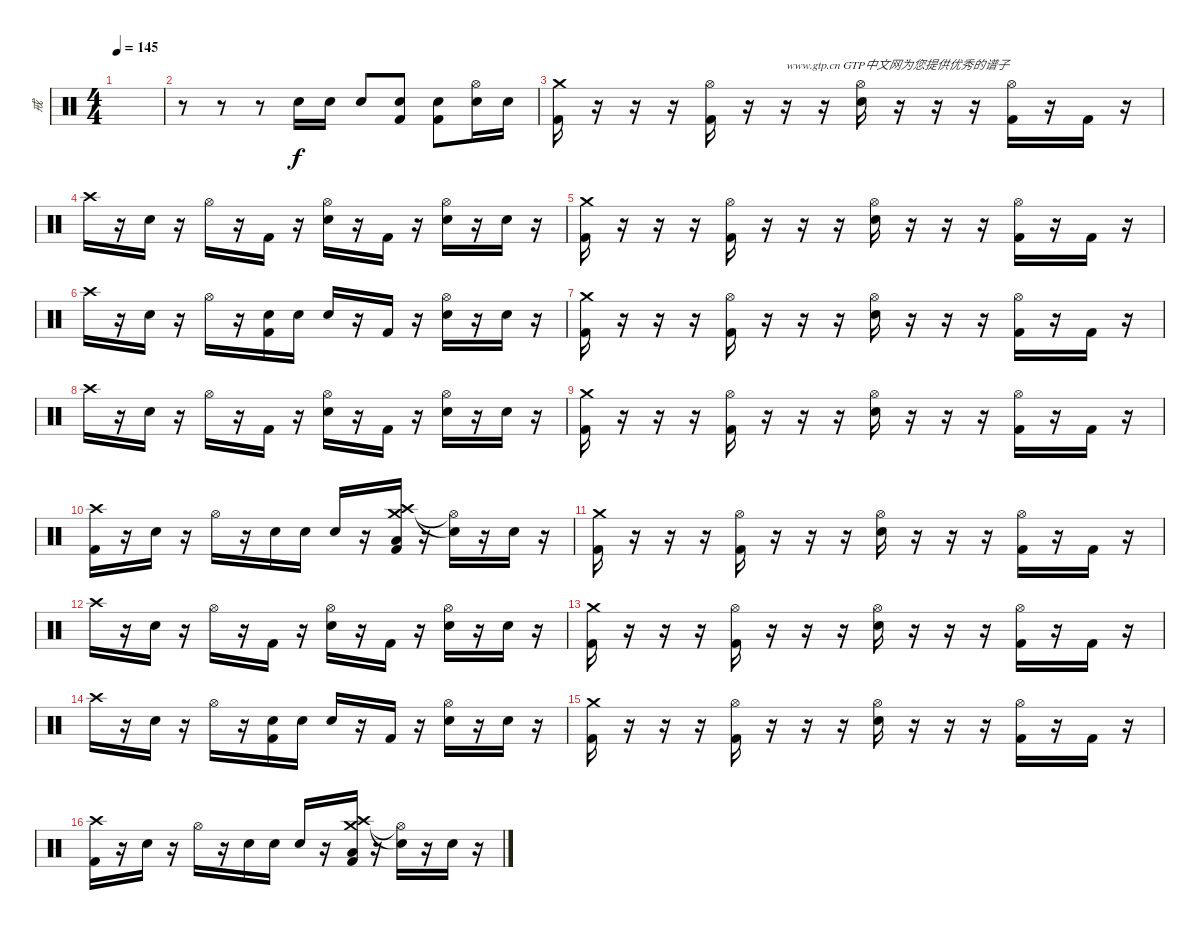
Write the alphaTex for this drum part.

\track ("戒" "戒") {instrument percussion}
\staff {score}
\articulation defaults
\ts (4 4)
\tempo 145
\clef neutral
\ks c
|
r.8 r.8 r.8 "Electric Snare (hit)".16 "Electric Snare (hit)".16 "Electric Snare (hit)".8 ("Electric Snare (hit)" "Kick (hit) 2").8 ("Electric Snare (hit)" "Kick (hit) 2").8 ("Electric Snare (hit)" "Hi-Hat (open)").16 "Electric Snare (hit)".16 |
("Crash medium (hit)" "Kick (hit) 2").16 r.16 r.16 r.16 ("Hi-Hat (open)" "Kick (hit) 2").16 r.16 r.16{txt "www.gtp.cn GTP中文网为您提供优秀的谱子"} r.16 ("Hi-Hat (open)" "Electric Snare (hit)").16 r.16 r.16 r.16 ("Hi-Hat (open)" "Kick (hit) 2").16 r.16 "Kick (hit) 2".16 r.16 |
"Crash high (hit)".16 r.16 "Electric Snare (hit)".16 r.16 "Hi-Hat (open)".16 r.16 "Kick (hit) 2".16 r.16 ("Hi-Hat (open)" "Electric Snare (hit)").16 r.16 "Kick (hit) 2".16 r.16 ("Hi-Hat (open)" "Electric Snare (hit)").16 r.16 "Electric Snare (hit)".16 r.16 |
("Crash medium (hit)" "Kick (hit) 2").16 r.16 r.16 r.16 ("Hi-Hat (open)" "Kick (hit) 2").16 r.16 r.16 r.16 ("Hi-Hat (open)" "Electric Snare (hit)").16 r.16 r.16 r.16 ("Hi-Hat (open)" "Kick (hit) 2").16 r.16 "Kick (hit) 2".16 r.16 |
"Crash high (hit)".16 r.16 "Electric Snare (hit)".16 r.16 "Hi-Hat (open)".16 r.16 ("Electric Snare (hit)" "Kick (hit) 2").16 "Electric Snare (hit)".16 "Electric Snare (hit)".16 r.16 "Kick (hit) 2".16 r.16 ("Hi-Hat (open)" "Electric Snare (hit)").16 r.16 "Electric Snare (hit)".16 r.16 |
("Crash medium (hit)" "Kick (hit) 2").16 r.16 r.16 r.16 ("Hi-Hat (open)" "Kick (hit) 2").16 r.16 r.16 r.16 ("Hi-Hat (open)" "Electric Snare (hit)").16 r.16 r.16 r.16 ("Hi-Hat (open)" "Kick (hit) 2").16 r.16 "Kick (hit) 2".16 r.16 |
"Crash high (hit)".16 r.16 "Electric Snare (hit)".16 r.16 "Hi-Hat (open)".16 r.16 "Kick (hit) 2".16 r.16 ("Hi-Hat (open)" "Electric Snare (hit)").16 r.16 "Kick (hit) 2".16 r.16 ("Hi-Hat (open)" "Electric Snare (hit)").16 r.16 "Electric Snare (hit)".16 r.16 |
("Crash medium (hit)" "Kick (hit) 2").16 r.16 r.16 r.16 ("Hi-Hat (open)" "Kick (hit) 2").16 r.16 r.16 r.16 ("Hi-Hat (open)" "Electric Snare (hit)").16 r.16 r.16 r.16 ("Hi-Hat (open)" "Kick (hit) 2").16 r.16 "Kick (hit) 2".16 r.16 |
("Crash high (hit)" "Kick (hit) 2").16 r.16 "Electric Snare (hit)".16 r.16 "Hi-Hat (open)".16 r.16 "Electric Snare (hit)".16 "Electric Snare (hit)".16 "Electric Snare (hit)".16 r.16 ("Crash medium (hit)" "Crash high (hit)" "Low Tom (hit)" "Kick (hit) 2").16 r.16 ("Hi-Hat (open)"{t} "Electric Snare (hit)"{t}).16 r.16 "Electric Snare (hit)".16 r.16 |
("Crash medium (hit)" "Kick (hit) 2").16 r.16 r.16 r.16 ("Hi-Hat (open)" "Kick (hit) 2").16 r.16 r.16 r.16 ("Hi-Hat (open)" "Electric Snare (hit)").16 r.16 r.16 r.16 ("Hi-Hat (open)" "Kick (hit) 2").16 r.16 "Kick (hit) 2".16 r.16 |
"Crash high (hit)".16 r.16 "Electric Snare (hit)".16 r.16 "Hi-Hat (open)".16 r.16 "Kick (hit) 2".16 r.16 ("Hi-Hat (open)" "Electric Snare (hit)").16 r.16 "Kick (hit) 2".16 r.16 ("Hi-Hat (open)" "Electric Snare (hit)").16 r.16 "Electric Snare (hit)".16 r.16 |
("Crash medium (hit)" "Kick (hit) 2").16 r.16 r.16 r.16 ("Hi-Hat (open)" "Kick (hit) 2").16 r.16 r.16 r.16 ("Hi-Hat (open)" "Electric Snare (hit)").16 r.16 r.16 r.16 ("Hi-Hat (open)" "Kick (hit) 2").16 r.16 "Kick (hit) 2".16 r.16 |
"Crash high (hit)".16 r.16 "Electric Snare (hit)".16 r.16 "Hi-Hat (open)".16 r.16 ("Electric Snare (hit)" "Kick (hit) 2").16 "Electric Snare (hit)".16 "Electric Snare (hit)".16 r.16 "Kick (hit) 2".16 r.16 ("Hi-Hat (open)" "Electric Snare (hit)").16 r.16 "Electric Snare (hit)".16 r.16 |
("Crash medium (hit)" "Kick (hit) 2").16 r.16 r.16 r.16 ("Hi-Hat (open)" "Kick (hit) 2").16 r.16 r.16 r.16 ("Hi-Hat (open)" "Electric Snare (hit)").16 r.16 r.16 r.16 ("Hi-Hat (open)" "Kick (hit) 2").16 r.16 "Kick (hit) 2".16 r.16 |
("Crash high (hit)" "Kick (hit) 2").16 r.16 "Electric Snare (hit)".16 r.16 "Hi-Hat (open)".16 r.16 "Electric Snare (hit)".16 "Electric Snare (hit)".16 "Electric Snare (hit)".16 r.16 ("Crash medium (hit)" "Crash high (hit)" "Low Tom (hit)" "Kick (hit) 2").16 r.16 ("Hi-Hat (open)"{t} "Electric Snare (hit)"{t}).16 r.16 "Electric Snare (hit)".16 r.16
